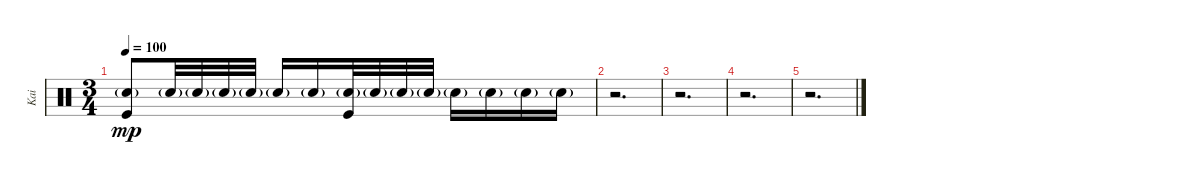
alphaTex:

\track ("Kai" "Kai") {instrument percussion}
\staff {score}
\articulation defaults
\ts (3 4)
\tempo 100
\clef neutral
\ks c
("Snare (hit) 2"{g} "Kick (hit)").8{dy mp} "Snare (hit) 2"{g}.32 "Snare (hit) 2"{g}.32 "Snare (hit) 2"{g}.32 "Snare (hit) 2"{g}.32 "Snare (hit) 2"{g}.16 "Snare (hit) 2"{g}.16 ("Snare (hit) 2"{g} "Kick (hit)").32 "Snare (hit) 2"{g}.32 "Snare (hit) 2"{g}.32 "Snare (hit) 2"{g}.32 "Snare (hit) 2"{g}.16 "Snare (hit) 2"{g}.16 "Snare (hit) 2"{g}.16 "Snare (hit) 2"{g}.16 |
r.2{d} |
r.2{d} |
r.2{d} |
r.2{d}
